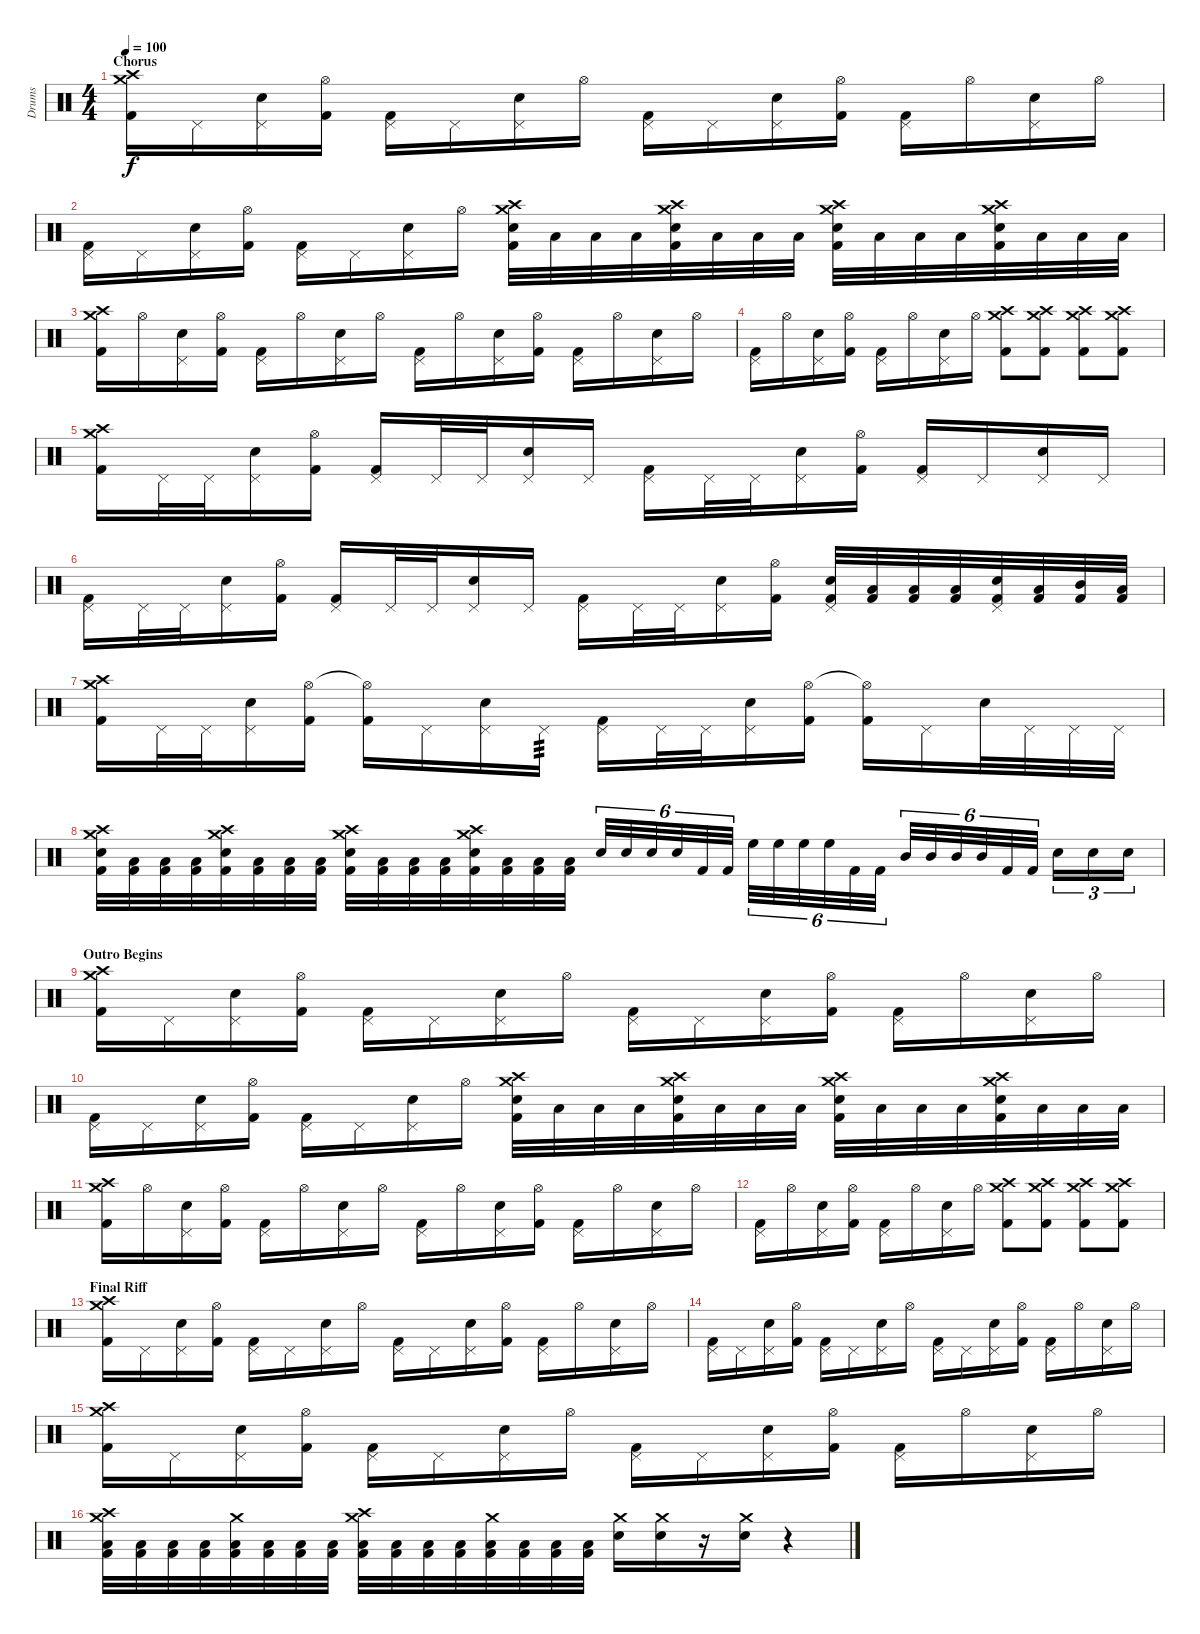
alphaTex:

\track ("Drums" "Drums") {instrument percussion}
\staff {score}
\articulation defaults
\ts (4 4)
\section ("" "Chorus ")
\tempo 100
\clef neutral
\ks c
("Crash medium (hit)" "Crash high (hit)" "Kick (hit) 2").16{dy f} "Pedal Hi-Hat (hit)".16 ("Pedal Hi-Hat (hit)" "Electric Snare (hit)").16 ("Hi-Hat (open)" "Kick (hit) 2").16 ("Pedal Hi-Hat (hit)" "Kick (hit) 2").16 "Pedal Hi-Hat (hit)".16 ("Pedal Hi-Hat (hit)" "Electric Snare (hit)").16 "Hi-Hat (open)".16 ("Pedal Hi-Hat (hit)" "Kick (hit) 2").16 "Pedal Hi-Hat (hit)".16 ("Pedal Hi-Hat (hit)" "Electric Snare (hit)").16 ("Hi-Hat (open)" "Kick (hit) 2").16 ("Pedal Hi-Hat (hit)" "Kick (hit) 2").16 "Hi-Hat (open)".16 ("Pedal Hi-Hat (hit)" "Electric Snare (hit)").16 "Hi-Hat (open)".16 |
("Pedal Hi-Hat (hit)" "Kick (hit) 2").16 "Pedal Hi-Hat (hit)".16 ("Pedal Hi-Hat (hit)" "Electric Snare (hit)").16 ("Hi-Hat (open)" "Kick (hit) 2").16 ("Pedal Hi-Hat (hit)" "Kick (hit) 2").16 "Pedal Hi-Hat (hit)".16 ("Pedal Hi-Hat (hit)" "Electric Snare (hit)").16 "Hi-Hat (open)".16 ("Crash medium (hit)" "Crash high (hit)" "Electric Snare (hit)" "Kick (hit) 2").32 "Low Tom (hit)".32 "Low Tom (hit)".32 "Low Tom (hit)".32 ("Crash medium (hit)" "Crash high (hit)" "Electric Snare (hit)" "Kick (hit) 2").32 "Low Tom (hit)".32 "Low Tom (hit)".32 "Low Tom (hit)".32 ("Crash medium (hit)" "Crash high (hit)" "Electric Snare (hit)" "Kick (hit) 2").32 "Low Tom (hit)".32 "Low Tom (hit)".32 "Low Tom (hit)".32 ("Crash medium (hit)" "Crash high (hit)" "Electric Snare (hit)" "Kick (hit) 2").32 "Low Tom (hit)".32 "Low Tom (hit)".32 "Low Tom (hit)".32 |
("Crash medium (hit)" "Crash high (hit)" "Kick (hit) 2").16 "Hi-Hat (open)".16 ("Pedal Hi-Hat (hit)" "Electric Snare (hit)").16 ("Hi-Hat (open)" "Kick (hit) 2").16 ("Pedal Hi-Hat (hit)" "Kick (hit) 2").16 "Hi-Hat (open)".16 ("Pedal Hi-Hat (hit)" "Electric Snare (hit)").16 "Hi-Hat (open)".16 ("Pedal Hi-Hat (hit)" "Kick (hit) 2").16 "Hi-Hat (open)".16 ("Pedal Hi-Hat (hit)" "Electric Snare (hit)").16 ("Hi-Hat (open)" "Kick (hit) 2").16 ("Pedal Hi-Hat (hit)" "Kick (hit) 2").16 "Hi-Hat (open)".16 ("Pedal Hi-Hat (hit)" "Electric Snare (hit)").16 "Hi-Hat (open)".16 |
("Pedal Hi-Hat (hit)" "Kick (hit) 2").16 "Hi-Hat (open)".16 ("Pedal Hi-Hat (hit)" "Electric Snare (hit)").16 ("Hi-Hat (open)" "Kick (hit) 2").16 ("Pedal Hi-Hat (hit)" "Kick (hit) 2").16 "Hi-Hat (open)".16 ("Pedal Hi-Hat (hit)" "Electric Snare (hit)").16 "Hi-Hat (open)".16 ("Crash medium (hit)" "Crash high (hit)" "Kick (hit) 2").8 ("Crash medium (hit)" "Crash high (hit)" "Kick (hit) 2").8 ("Crash medium (hit)" "Crash high (hit)" "Kick (hit) 2").8 ("Crash medium (hit)" "Crash high (hit)" "Kick (hit) 2").8 |
("Crash medium (hit)" "Crash high (hit)" "Kick (hit) 2").16 "Pedal Hi-Hat (hit)".32 "Pedal Hi-Hat (hit)".32 ("Pedal Hi-Hat (hit)" "Electric Snare (hit)").16 ("Hi-Hat (open)" "Kick (hit) 2").16 ("Pedal Hi-Hat (hit)" "Kick (hit) 2").16 "Pedal Hi-Hat (hit)".32 "Pedal Hi-Hat (hit)".32 ("Pedal Hi-Hat (hit)" "Electric Snare (hit)").16 "Pedal Hi-Hat (hit)".16 ("Pedal Hi-Hat (hit)" "Kick (hit) 2").16 "Pedal Hi-Hat (hit)".32 "Pedal Hi-Hat (hit)".32 ("Pedal Hi-Hat (hit)" "Electric Snare (hit)").16 ("Hi-Hat (open)" "Kick (hit) 2").16 ("Pedal Hi-Hat (hit)" "Kick (hit) 2").16 "Pedal Hi-Hat (hit)".16 ("Pedal Hi-Hat (hit)" "Electric Snare (hit)").16 "Pedal Hi-Hat (hit)".16 |
("Pedal Hi-Hat (hit)" "Kick (hit) 2").16 "Pedal Hi-Hat (hit)".32 "Pedal Hi-Hat (hit)".32 ("Pedal Hi-Hat (hit)" "Electric Snare (hit)").16 ("Hi-Hat (open)" "Kick (hit) 2").16 ("Pedal Hi-Hat (hit)" "Kick (hit) 2").16 "Pedal Hi-Hat (hit)".32 "Pedal Hi-Hat (hit)".32 ("Pedal Hi-Hat (hit)" "Electric Snare (hit)").16 "Pedal Hi-Hat (hit)".16 ("Pedal Hi-Hat (hit)" "Kick (hit) 2").16 "Pedal Hi-Hat (hit)".32 "Pedal Hi-Hat (hit)".32 ("Pedal Hi-Hat (hit)" "Electric Snare (hit)").16 ("Hi-Hat (open)" "Kick (hit) 2").16 ("Pedal Hi-Hat (hit)" "Electric Snare (hit)" "Kick (hit) 2").32 ("Low Tom (hit)" "Kick (hit) 2").32 ("Low Tom (hit)" "Kick (hit) 2").32 ("Low Tom (hit)" "Kick (hit) 2").32 ("Pedal Hi-Hat (hit)" "Electric Snare (hit)" "Kick (hit) 2").32 ("Low Tom (hit)" "Kick (hit) 2").32 ("Mid Tom (hit)" "Kick (hit) 2").32 ("Low Floor Tom (hit)" "Kick (hit) 2").32 |
("Crash medium (hit)" "Crash high (hit)" "Kick (hit) 2").16 "Pedal Hi-Hat (hit)".32 "Pedal Hi-Hat (hit)".32 ("Pedal Hi-Hat (hit)" "Electric Snare (hit)").16 ("Hi-Hat (open)" "Kick (hit) 2").16 ("Hi-Hat (open)"{t} "Kick (hit) 2").16 "Pedal Hi-Hat (hit)".16 ("Pedal Hi-Hat (hit)" "Electric Snare (hit)").16 "Pedal Hi-Hat (hit)".16{tp 3} ("Pedal Hi-Hat (hit)" "Kick (hit) 2").16 "Pedal Hi-Hat (hit)".32 "Pedal Hi-Hat (hit)".32 ("Pedal Hi-Hat (hit)" "Electric Snare (hit)").16 ("Hi-Hat (open)" "Kick (hit) 2").16 ("Hi-Hat (open)"{t} "Kick (hit) 2").16 "Pedal Hi-Hat (hit)".16 "Electric Snare (hit)".32 "Pedal Hi-Hat (hit)".32 "Pedal Hi-Hat (hit)".32 "Pedal Hi-Hat (hit)".32 |
("Crash medium (hit)" "Crash high (hit)" "Electric Snare (hit)" "Kick (hit) 2").32 ("Low Tom (hit)" "Kick (hit) 2").32 ("Low Tom (hit)" "Kick (hit) 2").32 ("Low Tom (hit)" "Kick (hit) 2").32 ("Crash medium (hit)" "Crash high (hit)" "Electric Snare (hit)" "Kick (hit) 2").32 ("Low Tom (hit)" "Kick (hit) 2").32 ("Low Tom (hit)" "Kick (hit) 2").32 ("Low Tom (hit)" "Kick (hit) 2").32 ("Crash medium (hit)" "Crash high (hit)" "Electric Snare (hit)" "Kick (hit) 2").32 ("Low Tom (hit)" "Kick (hit) 2").32 ("Low Tom (hit)" "Kick (hit) 2").32 ("Low Tom (hit)" "Kick (hit) 2").32 ("Crash medium (hit)" "Crash high (hit)" "Electric Snare (hit)" "Kick (hit) 2").32 ("Low Tom (hit)" "Kick (hit) 2").32 ("Low Tom (hit)" "Kick (hit) 2").32 ("Low Tom (hit)" "Kick (hit) 2").32 "Electric Snare (hit)".32{tu (6 4)} "Electric Snare (hit)".32{tu (6 4)} "Electric Snare (hit)".32{tu (6 4)} "Electric Snare (hit)".32{tu (6 4)} "Kick (hit) 2".32{tu (6 4)} "Kick (hit) 2".32{tu (6 4)} "High Floor Tom (hit)".32{tu (6 4)} "High Floor Tom (hit)".32{tu (6 4)} "High Floor Tom (hit)".32{tu (6 4)} "High Floor Tom (hit)".32{tu (6 4)} "Kick (hit) 2".32{tu (6 4)} "Kick (hit) 2".32{tu (6 4)} "Mid Tom (hit)".32{tu (6 4)} "Mid Tom (hit)".32{tu (6 4)} "Mid Tom (hit)".32{tu (6 4)} "Mid Tom (hit)".32{tu (6 4)} "Kick (hit) 2".32{tu (6 4)} "Kick (hit) 2".32{tu (6 4)} "Electric Snare (hit)".16{tu (3 2)} "Electric Snare (hit)".16{tu (3 2)} "Electric Snare (hit)".16{tu (3 2)} |
\section ("" "Outro Begins")
("Crash medium (hit)" "Crash high (hit)" "Kick (hit) 2").16 "Pedal Hi-Hat (hit)".16 ("Pedal Hi-Hat (hit)" "Electric Snare (hit)").16 ("Hi-Hat (open)" "Kick (hit) 2").16 ("Pedal Hi-Hat (hit)" "Kick (hit) 2").16 "Pedal Hi-Hat (hit)".16 ("Pedal Hi-Hat (hit)" "Electric Snare (hit)").16 "Hi-Hat (open)".16 ("Pedal Hi-Hat (hit)" "Kick (hit) 2").16 "Pedal Hi-Hat (hit)".16 ("Pedal Hi-Hat (hit)" "Electric Snare (hit)").16 ("Hi-Hat (open)" "Kick (hit) 2").16 ("Pedal Hi-Hat (hit)" "Kick (hit) 2").16 "Hi-Hat (open)".16 ("Pedal Hi-Hat (hit)" "Electric Snare (hit)").16 "Hi-Hat (open)".16 |
("Pedal Hi-Hat (hit)" "Kick (hit) 2").16 "Pedal Hi-Hat (hit)".16 ("Pedal Hi-Hat (hit)" "Electric Snare (hit)").16 ("Hi-Hat (open)" "Kick (hit) 2").16 ("Pedal Hi-Hat (hit)" "Kick (hit) 2").16 "Pedal Hi-Hat (hit)".16 ("Pedal Hi-Hat (hit)" "Electric Snare (hit)").16 "Hi-Hat (open)".16 ("Crash medium (hit)" "Crash high (hit)" "Electric Snare (hit)" "Kick (hit) 2").32 "Low Tom (hit)".32 "Low Tom (hit)".32 "Low Tom (hit)".32 ("Crash medium (hit)" "Crash high (hit)" "Electric Snare (hit)" "Kick (hit) 2").32 "Low Tom (hit)".32 "Low Tom (hit)".32 "Low Tom (hit)".32 ("Crash medium (hit)" "Crash high (hit)" "Electric Snare (hit)" "Kick (hit) 2").32 "Low Tom (hit)".32 "Low Tom (hit)".32 "Low Tom (hit)".32 ("Crash medium (hit)" "Crash high (hit)" "Electric Snare (hit)" "Kick (hit) 2").32 "Low Tom (hit)".32 "Low Tom (hit)".32 "Low Tom (hit)".32 |
("Crash medium (hit)" "Crash high (hit)" "Kick (hit) 2").16 "Hi-Hat (open)".16 ("Pedal Hi-Hat (hit)" "Electric Snare (hit)").16 ("Hi-Hat (open)" "Kick (hit) 2").16 ("Pedal Hi-Hat (hit)" "Kick (hit) 2").16 "Hi-Hat (open)".16 ("Pedal Hi-Hat (hit)" "Electric Snare (hit)").16 "Hi-Hat (open)".16 ("Pedal Hi-Hat (hit)" "Kick (hit) 2").16 "Hi-Hat (open)".16 ("Pedal Hi-Hat (hit)" "Electric Snare (hit)").16 ("Hi-Hat (open)" "Kick (hit) 2").16 ("Pedal Hi-Hat (hit)" "Kick (hit) 2").16 "Hi-Hat (open)".16 ("Pedal Hi-Hat (hit)" "Electric Snare (hit)").16 "Hi-Hat (open)".16 |
("Pedal Hi-Hat (hit)" "Kick (hit) 2").16 "Hi-Hat (open)".16 ("Pedal Hi-Hat (hit)" "Electric Snare (hit)").16 ("Hi-Hat (open)" "Kick (hit) 2").16 ("Pedal Hi-Hat (hit)" "Kick (hit) 2").16 "Hi-Hat (open)".16 ("Pedal Hi-Hat (hit)" "Electric Snare (hit)").16 "Hi-Hat (open)".16 ("Crash medium (hit)" "Crash high (hit)" "Kick (hit) 2").8 ("Crash medium (hit)" "Crash high (hit)" "Kick (hit) 2").8 ("Crash medium (hit)" "Crash high (hit)" "Kick (hit) 2").8 ("Crash medium (hit)" "Crash high (hit)" "Kick (hit) 2").8 |
\section ("" "Final Riff")
("Crash medium (hit)" "Crash high (hit)" "Kick (hit) 2").16 "Pedal Hi-Hat (hit)".16 ("Pedal Hi-Hat (hit)" "Electric Snare (hit)").16 ("Hi-Hat (open)" "Kick (hit) 2").16 ("Pedal Hi-Hat (hit)" "Kick (hit) 2").16 "Pedal Hi-Hat (hit)".16 ("Pedal Hi-Hat (hit)" "Electric Snare (hit)").16 "Hi-Hat (open)".16 ("Pedal Hi-Hat (hit)" "Kick (hit) 2").16 "Pedal Hi-Hat (hit)".16 ("Pedal Hi-Hat (hit)" "Electric Snare (hit)").16 ("Hi-Hat (open)" "Kick (hit) 2").16 ("Pedal Hi-Hat (hit)" "Kick (hit) 2").16 "Hi-Hat (open)".16 ("Pedal Hi-Hat (hit)" "Electric Snare (hit)").16 "Hi-Hat (open)".16 |
("Pedal Hi-Hat (hit)" "Kick (hit) 2").16 "Pedal Hi-Hat (hit)".16 ("Pedal Hi-Hat (hit)" "Electric Snare (hit)").16 ("Hi-Hat (open)" "Kick (hit) 2").16 ("Pedal Hi-Hat (hit)" "Kick (hit) 2").16 "Pedal Hi-Hat (hit)".16 ("Pedal Hi-Hat (hit)" "Electric Snare (hit)").16 "Hi-Hat (open)".16 ("Pedal Hi-Hat (hit)" "Kick (hit) 2").16 "Pedal Hi-Hat (hit)".16 ("Pedal Hi-Hat (hit)" "Electric Snare (hit)").16 ("Hi-Hat (open)" "Kick (hit) 2").16 ("Pedal Hi-Hat (hit)" "Kick (hit) 2").16 "Hi-Hat (open)".16 ("Pedal Hi-Hat (hit)" "Electric Snare (hit)").16 "Hi-Hat (open)".16 |
("Crash medium (hit)" "Crash high (hit)" "Kick (hit) 2").16 "Pedal Hi-Hat (hit)".16 ("Pedal Hi-Hat (hit)" "Electric Snare (hit)").16 ("Hi-Hat (open)" "Kick (hit) 2").16 ("Pedal Hi-Hat (hit)" "Kick (hit) 2").16 "Pedal Hi-Hat (hit)".16 ("Pedal Hi-Hat (hit)" "Electric Snare (hit)").16 "Hi-Hat (open)".16 ("Pedal Hi-Hat (hit)" "Kick (hit) 2").16 "Pedal Hi-Hat (hit)".16 ("Pedal Hi-Hat (hit)" "Electric Snare (hit)").16 ("Hi-Hat (open)" "Kick (hit) 2").16 ("Pedal Hi-Hat (hit)" "Kick (hit) 2").16 "Hi-Hat (open)".16 ("Pedal Hi-Hat (hit)" "Electric Snare (hit)").16 "Hi-Hat (open)".16 |
("Crash medium (hit)" "Crash high (hit)" "Low Tom (hit)" "Kick (hit) 2").32 ("Low Tom (hit)" "Kick (hit) 2").32 ("Low Tom (hit)" "Kick (hit) 2").32 ("Low Tom (hit)" "Kick (hit) 2").32 ("Crash medium (hit)" "Low Tom (hit)" "Kick (hit) 2").32 ("Low Tom (hit)" "Kick (hit) 2").32 ("Low Tom (hit)" "Kick (hit) 2").32 ("Low Tom (hit)" "Kick (hit) 2").32 ("Crash medium (hit)" "Crash high (hit)" "Low Tom (hit)" "Kick (hit) 2").32 ("Low Tom (hit)" "Kick (hit) 2").32 ("Low Tom (hit)" "Kick (hit) 2").32 ("Low Tom (hit)" "Kick (hit) 2").32 ("Crash medium (hit)" "Low Tom (hit)" "Kick (hit) 2").32 ("Low Tom (hit)" "Kick (hit) 2").32 ("Low Tom (hit)" "Kick (hit) 2").32 ("Low Tom (hit)" "Kick (hit) 2").32 ("Crash medium (hit)" "Electric Snare (hit)").16 ("Crash medium (hit)" "Electric Snare (hit)").16 r.16 ("Crash medium (hit)" "Electric Snare (hit)").16 r.4
